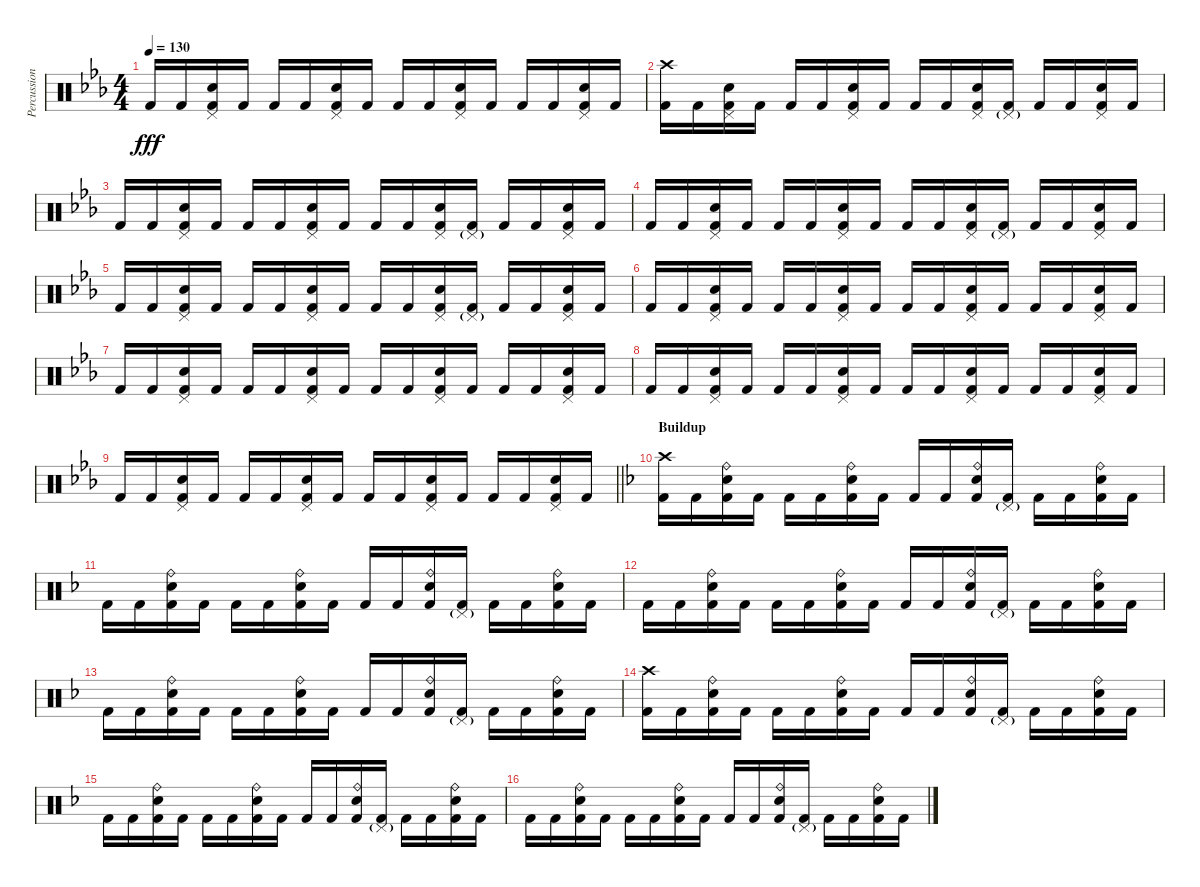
\track ("Percussion" "Percussion") {instrument percussion}
\staff {score}
\articulation defaults
\ts (4 4)
\tempo 130
\clef neutral
\ks cminor "Kick (hit) 2".16{dy fff} "Kick (hit) 2".16
("Pedal Hi-Hat (hit)" "Electric Snare (hit)" "Kick (hit) 2").16 "Kick (hit) 2".16 "Kick (hit) 2".16 "Kick (hit) 2".16 ("Pedal Hi-Hat (hit)" "Electric Snare (hit)" "Kick (hit) 2").16 "Kick (hit) 2".16 "Kick (hit) 2".16 "Kick (hit) 2".16 ("Pedal Hi-Hat (hit)" "Electric Snare (hit)" "Kick (hit) 2").16 "Kick (hit) 2".16 "Kick (hit) 2".16 "Kick (hit) 2".16 ("Pedal Hi-Hat (hit)" "Electric Snare (hit)" "Kick (hit) 2").16 "Kick (hit) 2".16 |
("Crash high (hit)" "Kick (hit) 2").16 "Kick (hit) 2".16 ("Pedal Hi-Hat (hit)" "Electric Snare (hit)" "Kick (hit) 2").16 "Kick (hit) 2".16 "Kick (hit) 2".16 "Kick (hit) 2".16 ("Pedal Hi-Hat (hit)" "Electric Snare (hit)" "Kick (hit) 2").16 "Kick (hit) 2".16 "Kick (hit) 2".16 "Kick (hit) 2".16 ("Pedal Hi-Hat (hit)" "Electric Snare (hit)" "Kick (hit) 2").16 ("Pedal Hi-Hat (hit)"{g} "Kick (hit) 2").16 "Kick (hit) 2".16 "Kick (hit) 2".16 ("Pedal Hi-Hat (hit)" "Electric Snare (hit)" "Kick (hit) 2").16 "Kick (hit) 2".16 |
"Kick (hit) 2".16 "Kick (hit) 2".16 ("Pedal Hi-Hat (hit)" "Electric Snare (hit)" "Kick (hit) 2").16 "Kick (hit) 2".16 "Kick (hit) 2".16 "Kick (hit) 2".16 ("Pedal Hi-Hat (hit)" "Electric Snare (hit)" "Kick (hit) 2").16 "Kick (hit) 2".16 "Kick (hit) 2".16 "Kick (hit) 2".16 ("Pedal Hi-Hat (hit)" "Electric Snare (hit)" "Kick (hit) 2").16 ("Pedal Hi-Hat (hit)"{g} "Kick (hit) 2").16 "Kick (hit) 2".16 "Kick (hit) 2".16 ("Pedal Hi-Hat (hit)" "Electric Snare (hit)" "Kick (hit) 2").16 "Kick (hit) 2".16 |
"Kick (hit) 2".16 "Kick (hit) 2".16 ("Pedal Hi-Hat (hit)" "Electric Snare (hit)" "Kick (hit) 2").16 "Kick (hit) 2".16 "Kick (hit) 2".16 "Kick (hit) 2".16 ("Pedal Hi-Hat (hit)" "Electric Snare (hit)" "Kick (hit) 2").16 "Kick (hit) 2".16 "Kick (hit) 2".16 "Kick (hit) 2".16 ("Pedal Hi-Hat (hit)" "Electric Snare (hit)" "Kick (hit) 2").16 ("Pedal Hi-Hat (hit)"{g} "Kick (hit) 2").16 "Kick (hit) 2".16 "Kick (hit) 2".16 ("Pedal Hi-Hat (hit)" "Electric Snare (hit)" "Kick (hit) 2").16 "Kick (hit) 2".16 |
"Kick (hit) 2".16 "Kick (hit) 2".16 ("Pedal Hi-Hat (hit)" "Electric Snare (hit)" "Kick (hit) 2").16 "Kick (hit) 2".16 "Kick (hit) 2".16 "Kick (hit) 2".16 ("Pedal Hi-Hat (hit)" "Electric Snare (hit)" "Kick (hit) 2").16 "Kick (hit) 2".16 "Kick (hit) 2".16 "Kick (hit) 2".16 ("Pedal Hi-Hat (hit)" "Electric Snare (hit)" "Kick (hit) 2").16 ("Pedal Hi-Hat (hit)"{g} "Kick (hit) 2").16 "Kick (hit) 2".16 "Kick (hit) 2".16 ("Pedal Hi-Hat (hit)" "Electric Snare (hit)" "Kick (hit) 2").16 "Kick (hit) 2".16 |
"Kick (hit) 2".16 "Kick (hit) 2".16 ("Pedal Hi-Hat (hit)" "Electric Snare (hit)" "Kick (hit) 2").16 "Kick (hit) 2".16 "Kick (hit) 2".16 "Kick (hit) 2".16 ("Pedal Hi-Hat (hit)" "Electric Snare (hit)" "Kick (hit) 2").16 "Kick (hit) 2".16 "Kick (hit) 2".16 "Kick (hit) 2".16 ("Pedal Hi-Hat (hit)" "Electric Snare (hit)" "Kick (hit) 2").16 "Kick (hit) 2".16 "Kick (hit) 2".16 "Kick (hit) 2".16 ("Pedal Hi-Hat (hit)" "Electric Snare (hit)" "Kick (hit) 2").16 "Kick (hit) 2".16 |
"Kick (hit) 2".16 "Kick (hit) 2".16 ("Pedal Hi-Hat (hit)" "Electric Snare (hit)" "Kick (hit) 2").16 "Kick (hit) 2".16 "Kick (hit) 2".16 "Kick (hit) 2".16 ("Pedal Hi-Hat (hit)" "Electric Snare (hit)" "Kick (hit) 2").16 "Kick (hit) 2".16 "Kick (hit) 2".16 "Kick (hit) 2".16 ("Pedal Hi-Hat (hit)" "Electric Snare (hit)" "Kick (hit) 2").16 "Kick (hit) 2".16 "Kick (hit) 2".16 "Kick (hit) 2".16 ("Pedal Hi-Hat (hit)" "Electric Snare (hit)" "Kick (hit) 2").16 "Kick (hit) 2".16 |
"Kick (hit) 2".16 "Kick (hit) 2".16 ("Pedal Hi-Hat (hit)" "Electric Snare (hit)" "Kick (hit) 2").16 "Kick (hit) 2".16 "Kick (hit) 2".16 "Kick (hit) 2".16 ("Pedal Hi-Hat (hit)" "Electric Snare (hit)" "Kick (hit) 2").16 "Kick (hit) 2".16 "Kick (hit) 2".16 "Kick (hit) 2".16 ("Pedal Hi-Hat (hit)" "Electric Snare (hit)" "Kick (hit) 2").16 "Kick (hit) 2".16 "Kick (hit) 2".16 "Kick (hit) 2".16 ("Pedal Hi-Hat (hit)" "Electric Snare (hit)" "Kick (hit) 2").16 "Kick (hit) 2".16 |
\barLineRight lightlight "Kick (hit) 2".16 "Kick (hit) 2".16
("Pedal Hi-Hat (hit)" "Electric Snare (hit)" "Kick (hit) 2").16 "Kick (hit) 2".16 "Kick (hit) 2".16 "Kick (hit) 2".16 ("Pedal Hi-Hat (hit)" "Electric Snare (hit)" "Kick (hit) 2").16 "Kick (hit) 2".16 "Kick (hit) 2".16 "Kick (hit) 2".16 ("Pedal Hi-Hat (hit)" "Electric Snare (hit)" "Kick (hit) 2").16 "Kick (hit) 2".16 "Kick (hit) 2".16 "Kick (hit) 2".16 ("Pedal Hi-Hat (hit)" "Electric Snare (hit)" "Kick (hit) 2").16 "Kick (hit) 2".16 |
\section ("" "Buildup")
\ks dminor
("Crash high (hit)" "Kick (hit) 2").16 "Kick (hit) 2".16 ("Ride (bell)" "Electric Snare (hit)" "Kick (hit) 2").16 "Kick (hit) 2".16 "Kick (hit) 2".16 "Kick (hit) 2".16 ("Ride (bell)" "Electric Snare (hit)" "Kick (hit) 2").16 "Kick (hit) 2".16 "Kick (hit) 2".16 "Kick (hit) 2".16 ("Ride (bell)" "Electric Snare (hit)" "Kick (hit) 2").16 ("Pedal Hi-Hat (hit)"{g} "Kick (hit) 2").16 "Kick (hit) 2".16 "Kick (hit) 2".16 ("Ride (bell)" "Electric Snare (hit)" "Kick (hit) 2").16 "Kick (hit) 2".16 |
"Kick (hit) 2".16 "Kick (hit) 2".16 ("Ride (bell)" "Electric Snare (hit)" "Kick (hit) 2").16 "Kick (hit) 2".16 "Kick (hit) 2".16 "Kick (hit) 2".16 ("Ride (bell)" "Electric Snare (hit)" "Kick (hit) 2").16 "Kick (hit) 2".16 "Kick (hit) 2".16 "Kick (hit) 2".16 ("Ride (bell)" "Electric Snare (hit)" "Kick (hit) 2").16 ("Pedal Hi-Hat (hit)"{g} "Kick (hit) 2").16 "Kick (hit) 2".16 "Kick (hit) 2".16 ("Ride (bell)" "Electric Snare (hit)" "Kick (hit) 2").16 "Kick (hit) 2".16 |
"Kick (hit) 2".16 "Kick (hit) 2".16 ("Ride (bell)" "Electric Snare (hit)" "Kick (hit) 2").16 "Kick (hit) 2".16 "Kick (hit) 2".16 "Kick (hit) 2".16 ("Ride (bell)" "Electric Snare (hit)" "Kick (hit) 2").16 "Kick (hit) 2".16 "Kick (hit) 2".16 "Kick (hit) 2".16 ("Ride (bell)" "Electric Snare (hit)" "Kick (hit) 2").16 ("Pedal Hi-Hat (hit)"{g} "Kick (hit) 2").16 "Kick (hit) 2".16 "Kick (hit) 2".16 ("Ride (bell)" "Electric Snare (hit)" "Kick (hit) 2").16 "Kick (hit) 2".16 |
"Kick (hit) 2".16 "Kick (hit) 2".16 ("Ride (bell)" "Electric Snare (hit)" "Kick (hit) 2").16 "Kick (hit) 2".16 "Kick (hit) 2".16 "Kick (hit) 2".16 ("Ride (bell)" "Electric Snare (hit)" "Kick (hit) 2").16 "Kick (hit) 2".16 "Kick (hit) 2".16 "Kick (hit) 2".16 ("Ride (bell)" "Electric Snare (hit)" "Kick (hit) 2").16 ("Pedal Hi-Hat (hit)"{g} "Kick (hit) 2").16 "Kick (hit) 2".16 "Kick (hit) 2".16 ("Ride (bell)" "Electric Snare (hit)" "Kick (hit) 2").16 "Kick (hit) 2".16 |
("Crash high (hit)" "Kick (hit) 2").16 "Kick (hit) 2".16 ("Ride (bell)" "Electric Snare (hit)" "Kick (hit) 2").16 "Kick (hit) 2".16 "Kick (hit) 2".16 "Kick (hit) 2".16 ("Ride (bell)" "Electric Snare (hit)" "Kick (hit) 2").16 "Kick (hit) 2".16 "Kick (hit) 2".16 "Kick (hit) 2".16 ("Ride (bell)" "Electric Snare (hit)" "Kick (hit) 2").16 ("Pedal Hi-Hat (hit)"{g} "Kick (hit) 2").16 "Kick (hit) 2".16 "Kick (hit) 2".16 ("Ride (bell)" "Electric Snare (hit)" "Kick (hit) 2").16 "Kick (hit) 2".16 |
"Kick (hit) 2".16 "Kick (hit) 2".16 ("Ride (bell)" "Electric Snare (hit)" "Kick (hit) 2").16 "Kick (hit) 2".16 "Kick (hit) 2".16 "Kick (hit) 2".16 ("Ride (bell)" "Electric Snare (hit)" "Kick (hit) 2").16 "Kick (hit) 2".16 "Kick (hit) 2".16 "Kick (hit) 2".16 ("Ride (bell)" "Electric Snare (hit)" "Kick (hit) 2").16 ("Pedal Hi-Hat (hit)"{g} "Kick (hit) 2").16 "Kick (hit) 2".16 "Kick (hit) 2".16 ("Ride (bell)" "Electric Snare (hit)" "Kick (hit) 2").16 "Kick (hit) 2".16 |
"Kick (hit) 2".16 "Kick (hit) 2".16 ("Ride (bell)" "Electric Snare (hit)" "Kick (hit) 2").16 "Kick (hit) 2".16 "Kick (hit) 2".16 "Kick (hit) 2".16 ("Ride (bell)" "Electric Snare (hit)" "Kick (hit) 2").16 "Kick (hit) 2".16 "Kick (hit) 2".16 "Kick (hit) 2".16 ("Ride (bell)" "Electric Snare (hit)" "Kick (hit) 2").16 ("Pedal Hi-Hat (hit)"{g} "Kick (hit) 2").16 "Kick (hit) 2".16 "Kick (hit) 2".16 ("Ride (bell)" "Electric Snare (hit)" "Kick (hit) 2").16 "Kick (hit) 2".16
